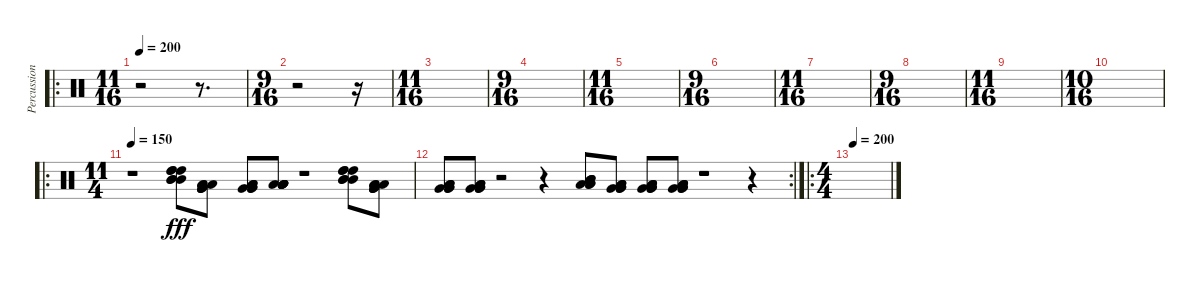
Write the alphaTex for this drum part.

\track ("Percussion" "Percussion") {instrument percussion}
\staff {score}
\articulation defaults
\ro
\ts (11 16)
\tempo 200
\clef neutral
\ks c
r.2{dy fff} r.8{d} |
\ts (9 16)
r.2 r.16 |
\ts (11 16)
|
\ts (9 16)
|
\ts (11 16)
|
\ts (9 16)
|
\ts (11 16)
|
\ts (9 16)
|
\ts (11 16)
|
\ts (10 16)
|
\ro
\ts (11 4)
\tempo 150
r.1 ("Mid Tom (hit)" "Mid Tom (hit)" "Mid Tom (hit)" "High Tom (hit)" "High Tom (hit)" "High Tom (hit)").8 ("Low Tom (hit)" "Low Tom (hit)" "Low Tom (hit)" "Very Low Tom (hit)" "Very Low Tom (hit)" "Very Low Tom (hit)").8 ("Very Low Tom (hit)" "Very Low Tom (hit)" "Very Low Tom (hit)" "Low Floor Tom (hit)" "Low Floor Tom (hit)" "Low Floor Tom (hit)").8 ("Low Floor Tom (hit)" "Low Floor Tom (hit)" "Low Floor Tom (hit)" "Low Floor Tom (hit)" "Low Floor Tom (hit)" "Low Floor Tom (hit)").8 r.1 ("Mid Tom (hit)" "Mid Tom (hit)" "Mid Tom (hit)" "High Tom (hit)" "High Tom (hit)" "High Tom (hit)").8 ("Low Tom (hit)" "Low Tom (hit)" "Low Tom (hit)" "Very Low Tom (hit)" "Very Low Tom (hit)" "Very Low Tom (hit)").8 |
\rc 2
("Very Low Tom (hit)" "Very Low Tom (hit)" "Very Low Tom (hit)" "Low Floor Tom (hit)" "Low Floor Tom (hit)" "Low Floor Tom (hit)").8 ("Low Floor Tom (hit)" "Low Floor Tom (hit)" "Low Floor Tom (hit)" "Very Low Tom (hit)" "Very Low Tom (hit)" "Very Low Tom (hit)").8 r.2 r.4 ("Mid Tom (hit)" "Mid Tom (hit)" "Mid Tom (hit)" "Low Tom (hit)" "Low Tom (hit)" "Low Tom (hit)").8 ("Low Tom (hit)" "Low Tom (hit)" "Low Tom (hit)" "Very Low Tom (hit)" "Very Low Tom (hit)" "Very Low Tom (hit)").8 ("Very Low Tom (hit)" "Very Low Tom (hit)" "Very Low Tom (hit)" "Low Floor Tom (hit)" "Low Floor Tom (hit)" "Low Floor Tom (hit)").8 ("Low Floor Tom (hit)" "Low Floor Tom (hit)" "Low Floor Tom (hit)" "Very Low Tom (hit)" "Very Low Tom (hit)" "Very Low Tom (hit)").8 r.1 r.4 |
\ro
\ts (4 4)
\tempo 200
